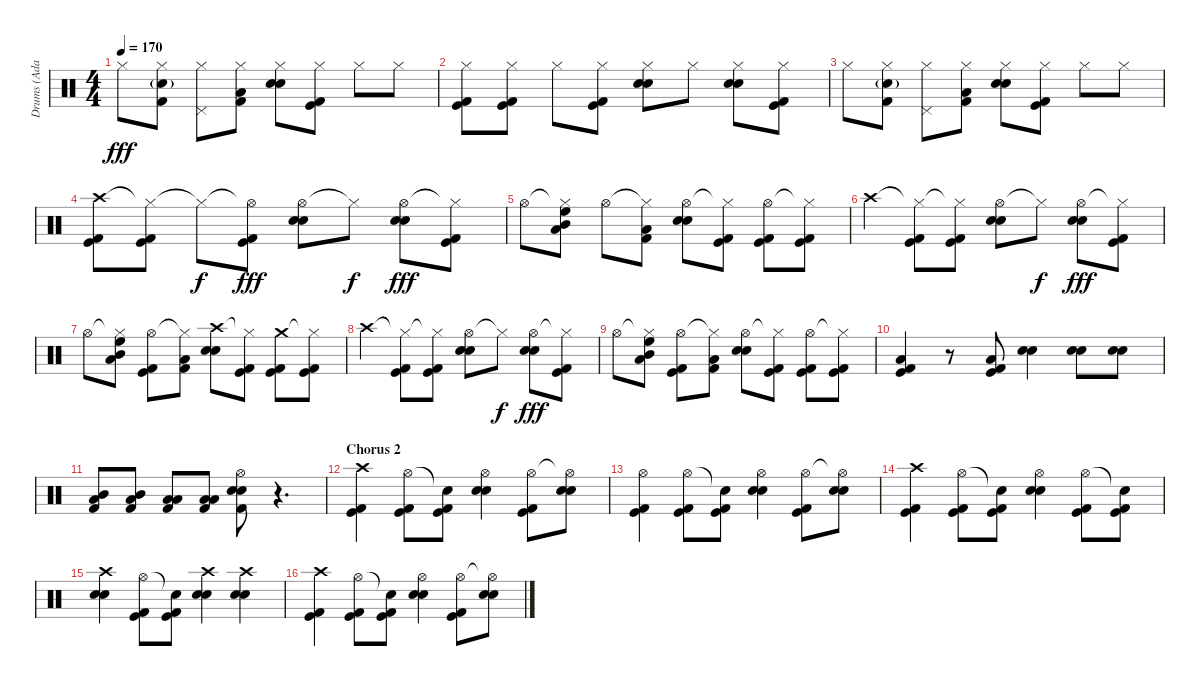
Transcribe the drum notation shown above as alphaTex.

\track ("Drums (Adam)" "Drums (Ada") {instrument percussion}
\staff {score}
\articulation defaults
\ts (4 4)
\tempo 170
\clef neutral
\ks c "Hi-Hat (closed)".8{dy fff}
("Hi-Hat (closed)" "Electric Snare (hit)"{g} "Kick (hit) 2").8 ("Hi-Hat (closed)" "Pedal Hi-Hat (hit)").8 ("Hi-Hat (closed)" "Low Tom (hit)" "Kick (hit) 2").8 ("Hi-Hat (closed)" "Snare (hit) 2" "Electric Snare (hit)").8 ("Hi-Hat (closed)" "Kick (hit)" "Kick (hit) 2").8 "Hi-Hat (closed)".8 "Hi-Hat (closed)".8 |
("Hi-Hat (closed)" "Kick (hit)" "Kick (hit) 2").8 ("Hi-Hat (closed)" "Kick (hit)" "Kick (hit) 2").8 "Hi-Hat (closed)".8 ("Hi-Hat (closed)" "Kick (hit)" "Kick (hit) 2").8 ("Hi-Hat (closed)" "Snare (hit) 2" "Electric Snare (hit)").8 "Hi-Hat (closed)".8 ("Hi-Hat (closed)" "Snare (hit) 2" "Electric Snare (hit)").8 ("Hi-Hat (closed)" "Kick (hit)" "Kick (hit) 2").8 |
"Hi-Hat (closed)".8 ("Hi-Hat (closed)" "Electric Snare (hit)"{g} "Kick (hit) 2").8 ("Hi-Hat (closed)" "Pedal Hi-Hat (hit)").8 ("Hi-Hat (closed)" "Low Tom (hit)" "Kick (hit) 2").8 ("Hi-Hat (closed)" "Snare (hit) 2" "Electric Snare (hit)").8 ("Hi-Hat (closed)" "Kick (hit)" "Kick (hit) 2").8 "Hi-Hat (closed)".8 "Hi-Hat (closed)".8 |
("Crash high (hit)" "Kick (hit)" "Kick (hit) 2").8 ("Hi-Hat (closed)"{t} "Kick (hit)" "Kick (hit) 2").8 "Hi-Hat (closed)"{t}.8{dy f} ("Hi-Hat (open)"{t} "Kick (hit)" "Kick (hit) 2").8{dy fff} ("Hi-Hat (open)" "Snare (hit) 2" "Electric Snare (hit)").8 "Hi-Hat (closed)"{t}.8{dy f} ("Hi-Hat (open)" "Snare (hit) 2" "Electric Snare (hit)").8{dy fff} ("Hi-Hat (closed)"{t} "Kick (hit)" "Kick (hit) 2").8 |
"Hi-Hat (open)".8 ("Hi-Hat (closed)"{t} "Low Tom (hit)" "Mid Tom (hit)" "High Floor Tom (hit)").8 "Hi-Hat (open)".8 ("Hi-Hat (closed)"{t} "Low Tom (hit)" "Kick (hit) 2").8 ("Hi-Hat (open)" "Snare (hit) 2" "Electric Snare (hit)").8 ("Hi-Hat (closed)"{t} "Kick (hit)" "Kick (hit) 2").8 ("Hi-Hat (open)" "Kick (hit)" "Kick (hit) 2").8 ("Hi-Hat (closed)"{t} "Kick (hit)" "Kick (hit) 2").8 |
"Crash high (hit)".4 ("Hi-Hat (closed)"{t} "Kick (hit)" "Kick (hit) 2").8 ("Hi-Hat (closed)"{t} "Kick (hit)" "Kick (hit) 2").8 ("Hi-Hat (open)" "Snare (hit) 2" "Electric Snare (hit)").8 "Hi-Hat (closed)"{t}.8{dy f} ("Hi-Hat (open)" "Snare (hit) 2" "Electric Snare (hit)").8{dy fff} ("Hi-Hat (closed)"{t} "Kick (hit)" "Kick (hit) 2").8 |
"Hi-Hat (open)".8 ("Hi-Hat (closed)"{t} "Low Tom (hit)" "Mid Tom (hit)" "High Floor Tom (hit)").8 ("Hi-Hat (open)" "Kick (hit)" "Kick (hit) 2").8 ("Hi-Hat (closed)"{t} "Low Tom (hit)" "Kick (hit) 2").8 ("Crash high (hit)" "Snare (hit) 2" "Electric Snare (hit)").8 ("Hi-Hat (closed)"{t} "Kick (hit)" "Kick (hit) 2").8 ("Crash medium (hit)" "Kick (hit)" "Kick (hit) 2").8 ("Hi-Hat (closed)"{t} "Kick (hit)" "Kick (hit) 2").8 |
"Crash high (hit)".4 ("Hi-Hat (closed)"{t} "Kick (hit)" "Kick (hit) 2").8 ("Hi-Hat (closed)"{t} "Kick (hit)" "Kick (hit) 2").8 ("Hi-Hat (open)" "Snare (hit) 2" "Electric Snare (hit)").8 "Hi-Hat (closed)"{t}.8{dy f} ("Hi-Hat (open)" "Snare (hit) 2" "Electric Snare (hit)").8{dy fff} ("Hi-Hat (closed)"{t} "Kick (hit)" "Kick (hit) 2").8 |
"Hi-Hat (open)".8 ("Hi-Hat (closed)"{t} "Low Tom (hit)" "Mid Tom (hit)" "High Floor Tom (hit)").8 ("Hi-Hat (open)" "Kick (hit)" "Kick (hit) 2").8 ("Hi-Hat (closed)"{t} "Low Tom (hit)" "Kick (hit) 2").8 ("Hi-Hat (open)" "Snare (hit) 2" "Electric Snare (hit)").8 ("Hi-Hat (closed)"{t} "Kick (hit)" "Kick (hit) 2").8 ("Hi-Hat (open)" "Kick (hit)" "Kick (hit) 2").8 ("Hi-Hat (closed)"{t} "Kick (hit)" "Kick (hit) 2").8 |
("Low Tom (hit)" "Kick (hit)" "Kick (hit) 2").4 r.8 ("Low Tom (hit)" "Kick (hit)" "Kick (hit) 2").8 ("Snare (hit) 2" "Electric Snare (hit)").4 ("Snare (hit) 2" "Electric Snare (hit)").8 ("Snare (hit) 2" "Electric Snare (hit)").8 |
("Mid Tom (hit)" "Low Tom (hit)" "Kick (hit) 2").8 ("Mid Tom (hit)" "Low Tom (hit)" "Kick (hit) 2").8 ("Low Floor Tom (hit)" "Low Tom (hit)" "Kick (hit) 2").8 ("Low Floor Tom (hit)" "Low Tom (hit)" "Kick (hit) 2").8 ("Hi-Hat (open)" "Snare (hit) 2" "Electric Snare (hit)" "Kick (hit) 2").8 r.4{d} |
\section ("" "Chorus 2")
("Crash high (hit)" "Kick (hit)" "Kick (hit) 2").4 ("Hi-Hat (open)" "Kick (hit)" "Kick (hit) 2").8 ("Snare (hit)"{t} "Kick (hit)" "Kick (hit) 2").8 ("Hi-Hat (open)" "Snare (hit) 2" "Electric Snare (hit)").4 ("Hi-Hat (open)" "Kick (hit)" "Kick (hit) 2").8 ("Hi-Hat (open)"{t} "Snare (hit) 2" "Electric Snare (hit)").8 |
("Hi-Hat (open)" "Kick (hit)" "Kick (hit) 2").4 ("Hi-Hat (open)" "Kick (hit)" "Kick (hit) 2").8 ("Snare (hit)"{t} "Kick (hit)" "Kick (hit) 2").8 ("Hi-Hat (open)" "Snare (hit) 2" "Electric Snare (hit)").4 ("Hi-Hat (open)" "Kick (hit)" "Kick (hit) 2").8 ("Hi-Hat (open)"{t} "Snare (hit) 2" "Electric Snare (hit)").8 |
("Crash high (hit)" "Kick (hit)" "Kick (hit) 2").4 ("Hi-Hat (open)" "Kick (hit)" "Kick (hit) 2").8 ("Snare (hit)"{t} "Kick (hit)" "Kick (hit) 2").8 ("Hi-Hat (open)" "Snare (hit) 2" "Electric Snare (hit)").4 ("Hi-Hat (open)" "Kick (hit)" "Kick (hit) 2").8 ("Snare (hit)"{t} "Kick (hit)" "Kick (hit) 2").8 |
("Crash high (hit)" "Snare (hit) 2" "Electric Snare (hit)").4 ("Hi-Hat (open)" "Kick (hit)" "Kick (hit) 2").8 ("Snare (hit)"{t} "Kick (hit)" "Kick (hit) 2").8 ("Crash high (hit)" "Snare (hit) 2" "Electric Snare (hit)").4 ("Crash high (hit)" "Snare (hit) 2" "Electric Snare (hit)").4 |
("Crash high (hit)" "Kick (hit)" "Kick (hit) 2").4 ("Hi-Hat (open)" "Kick (hit)" "Kick (hit) 2").8 ("Snare (hit)"{t} "Kick (hit)" "Kick (hit) 2").8 ("Hi-Hat (open)" "Snare (hit) 2" "Electric Snare (hit)").4 ("Hi-Hat (open)" "Kick (hit)" "Kick (hit) 2").8 ("Hi-Hat (open)"{t} "Snare (hit) 2" "Electric Snare (hit)").8
